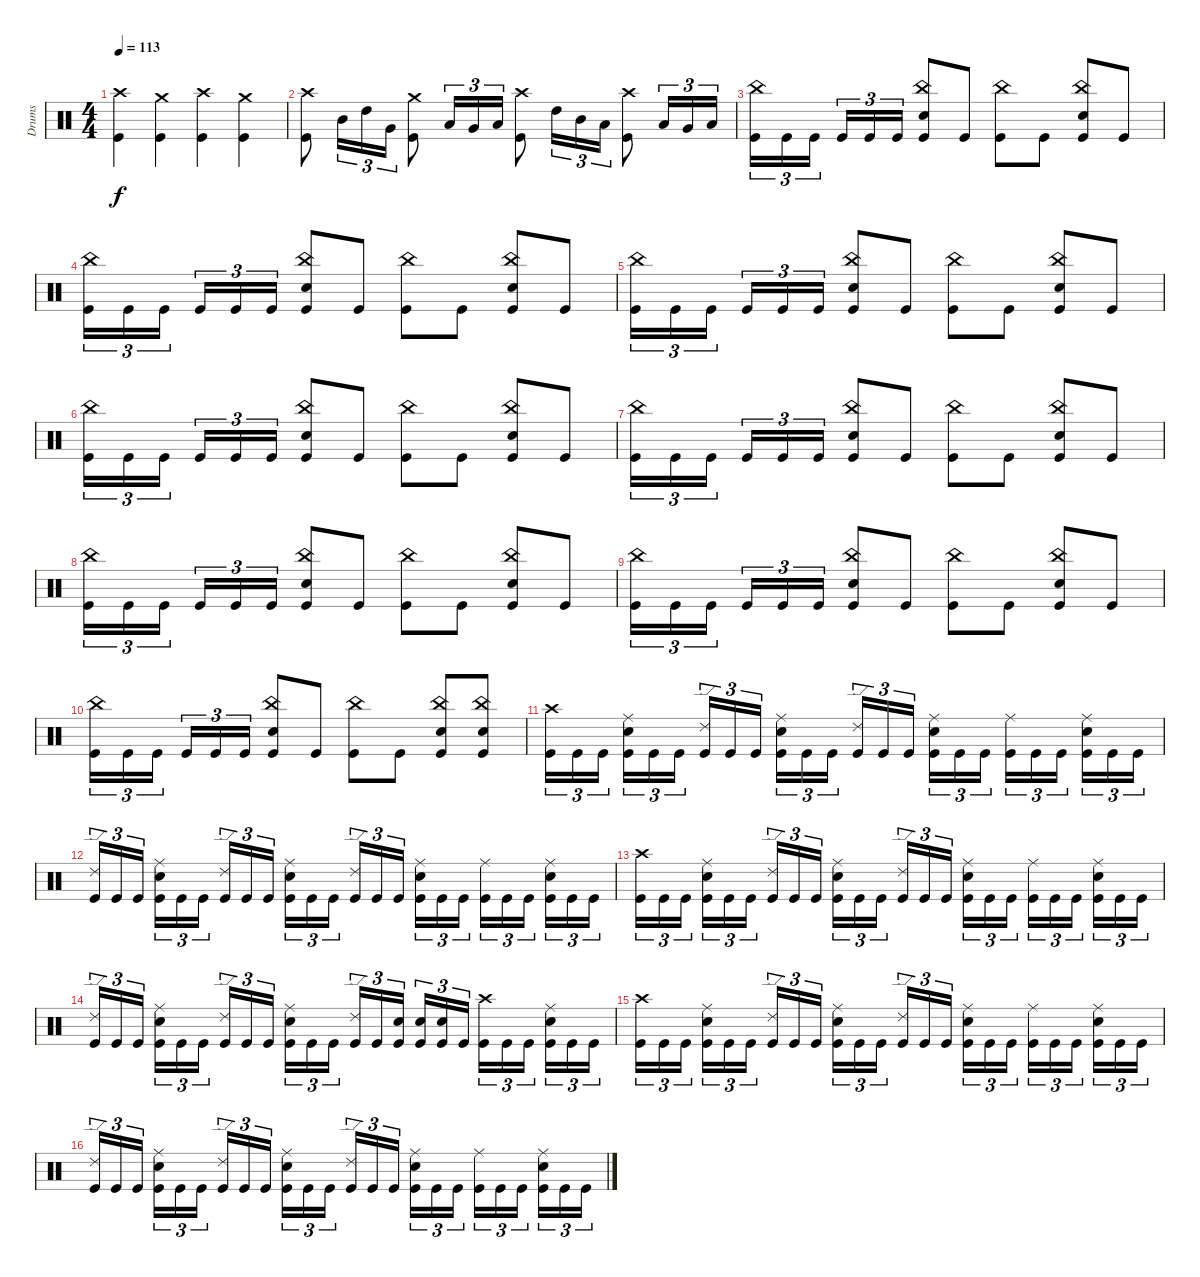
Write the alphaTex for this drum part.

\track ("Drums" "Drums") {instrument percussion}
\staff {score}
\articulation defaults
\ts (4 4)
\tempo 113
\clef neutral
\ks c
("Crash high (hit)" "Kick (hit)").4{dy f} ("Crash medium (hit)" "Kick (hit)").4 ("Crash high (hit)" "Kick (hit)").4 ("Crash medium (hit)" "Kick (hit)").4 |
("Crash high (hit)" "Kick (hit)").8 "Mid Tom (hit)".16{tu (3 2)} "High Tom (hit)".16{tu (3 2)} "Very Low Tom (hit)".16{tu (3 2)} ("Crash medium (hit)" "Kick (hit)").8 "Low Tom (hit)".16{tu (3 2)} "Very Low Tom (hit)".16{tu (3 2)} "Low Floor Tom (hit)".16{tu (3 2)} ("Crash high (hit)" "Kick (hit)").8 "High Tom (hit)".16{tu (3 2)} "Mid Tom (hit)".16{tu (3 2)} "Low Tom (hit)".16{tu (3 2)} ("Crash high (hit)" "Kick (hit)").8 "Low Tom (hit)".16{tu (3 2)} "Very Low Tom (hit)".16{tu (3 2)} "Low Floor Tom (hit)".16{tu (3 2)} |
("China (hit)" "Kick (hit)").16{tu (3 2)} "Kick (hit)".16{tu (3 2)} "Kick (hit)".16{tu (3 2) beam splitsecondary} "Kick (hit)".16{tu (3 2)} "Kick (hit)".16{tu (3 2)} "Kick (hit)".16{tu (3 2)} ("China (hit)" "Electric Snare (hit)" "Kick (hit)").8 "Kick (hit)".8 ("China (hit)" "Kick (hit)").8 "Kick (hit)".8 ("China (hit)" "Electric Snare (hit)" "Kick (hit)").8 "Kick (hit)".8 |
("China (hit)" "Kick (hit)").16{tu (3 2)} "Kick (hit)".16{tu (3 2)} "Kick (hit)".16{tu (3 2) beam splitsecondary} "Kick (hit)".16{tu (3 2)} "Kick (hit)".16{tu (3 2)} "Kick (hit)".16{tu (3 2)} ("China (hit)" "Electric Snare (hit)" "Kick (hit)").8 "Kick (hit)".8 ("China (hit)" "Kick (hit)").8 "Kick (hit)".8 ("China (hit)" "Electric Snare (hit)" "Kick (hit)").8 "Kick (hit)".8 |
("China (hit)" "Kick (hit)").16{tu (3 2)} "Kick (hit)".16{tu (3 2)} "Kick (hit)".16{tu (3 2) beam splitsecondary} "Kick (hit)".16{tu (3 2)} "Kick (hit)".16{tu (3 2)} "Kick (hit)".16{tu (3 2)} ("China (hit)" "Electric Snare (hit)" "Kick (hit)").8 "Kick (hit)".8 ("China (hit)" "Kick (hit)").8 "Kick (hit)".8 ("China (hit)" "Electric Snare (hit)" "Kick (hit)").8 "Kick (hit)".8 |
("China (hit)" "Kick (hit)").16{tu (3 2)} "Kick (hit)".16{tu (3 2)} "Kick (hit)".16{tu (3 2) beam splitsecondary} "Kick (hit)".16{tu (3 2)} "Kick (hit)".16{tu (3 2)} "Kick (hit)".16{tu (3 2)} ("China (hit)" "Electric Snare (hit)" "Kick (hit)").8 "Kick (hit)".8 ("China (hit)" "Kick (hit)").8 "Kick (hit)".8 ("China (hit)" "Electric Snare (hit)" "Kick (hit)").8 "Kick (hit)".8 |
("China (hit)" "Kick (hit)").16{tu (3 2)} "Kick (hit)".16{tu (3 2)} "Kick (hit)".16{tu (3 2) beam splitsecondary} "Kick (hit)".16{tu (3 2)} "Kick (hit)".16{tu (3 2)} "Kick (hit)".16{tu (3 2)} ("China (hit)" "Electric Snare (hit)" "Kick (hit)").8 "Kick (hit)".8 ("China (hit)" "Kick (hit)").8 "Kick (hit)".8 ("China (hit)" "Electric Snare (hit)" "Kick (hit)").8 "Kick (hit)".8 |
("China (hit)" "Kick (hit)").16{tu (3 2)} "Kick (hit)".16{tu (3 2)} "Kick (hit)".16{tu (3 2) beam splitsecondary} "Kick (hit)".16{tu (3 2)} "Kick (hit)".16{tu (3 2)} "Kick (hit)".16{tu (3 2)} ("China (hit)" "Electric Snare (hit)" "Kick (hit)").8 "Kick (hit)".8 ("China (hit)" "Kick (hit)").8 "Kick (hit)".8 ("China (hit)" "Electric Snare (hit)" "Kick (hit)").8 "Kick (hit)".8 |
("China (hit)" "Kick (hit)").16{tu (3 2)} "Kick (hit)".16{tu (3 2)} "Kick (hit)".16{tu (3 2) beam splitsecondary} "Kick (hit)".16{tu (3 2)} "Kick (hit)".16{tu (3 2)} "Kick (hit)".16{tu (3 2)} ("China (hit)" "Electric Snare (hit)" "Kick (hit)").8 "Kick (hit)".8 ("China (hit)" "Kick (hit)").8 "Kick (hit)".8 ("China (hit)" "Electric Snare (hit)" "Kick (hit)").8 "Kick (hit)".8 |
("China (hit)" "Kick (hit)").16{tu (3 2)} "Kick (hit)".16{tu (3 2)} "Kick (hit)".16{tu (3 2) beam splitsecondary} "Kick (hit)".16{tu (3 2)} "Kick (hit)".16{tu (3 2)} "Kick (hit)".16{tu (3 2)} ("China (hit)" "Electric Snare (hit)" "Kick (hit)").8 "Kick (hit)".8 ("China (hit)" "Kick (hit)").8 "Kick (hit)".8 ("China (hit)" "Electric Snare (hit)" "Kick (hit)").8 ("China (hit)" "Electric Snare (hit)" "Kick (hit)").8 |
("Crash high (hit)" "Kick (hit)").16{tu (3 2)} "Kick (hit)".16{tu (3 2)} "Kick (hit)".16{tu (3 2) beam splitsecondary} ("Ride (middle)" "Electric Snare (hit)" "Kick (hit)").16{tu (3 2)} "Kick (hit)".16{tu (3 2)} "Kick (hit)".16{tu (3 2)} ("Ride (edge) 2" "Kick (hit)").16{tu (3 2)} "Kick (hit)".16{tu (3 2)} "Kick (hit)".16{tu (3 2) beam splitsecondary} ("Ride (middle)" "Electric Snare (hit)" "Kick (hit)").16{tu (3 2)} "Kick (hit)".16{tu (3 2)} "Kick (hit)".16{tu (3 2)} ("Ride (edge) 2" "Kick (hit)").16{tu (3 2)} "Kick (hit)".16{tu (3 2)} "Kick (hit)".16{tu (3 2) beam splitsecondary} ("Ride (middle)" "Electric Snare (hit)" "Kick (hit)").16{tu (3 2)} "Kick (hit)".16{tu (3 2)} "Kick (hit)".16{tu (3 2)} ("Ride (middle)" "Kick (hit)").16{tu (3 2)} "Kick (hit)".16{tu (3 2)} "Kick (hit)".16{tu (3 2) beam splitsecondary} ("Ride (middle)" "Electric Snare (hit)" "Kick (hit)").16{tu (3 2)} "Kick (hit)".16{tu (3 2)} "Kick (hit)".16{tu (3 2)} |
("Ride (edge) 2" "Kick (hit)").16{tu (3 2)} "Kick (hit)".16{tu (3 2)} "Kick (hit)".16{tu (3 2) beam splitsecondary} ("Ride (middle)" "Electric Snare (hit)" "Kick (hit)").16{tu (3 2)} "Kick (hit)".16{tu (3 2)} "Kick (hit)".16{tu (3 2)} ("Ride (edge) 2" "Kick (hit)").16{tu (3 2)} "Kick (hit)".16{tu (3 2)} "Kick (hit)".16{tu (3 2) beam splitsecondary} ("Ride (middle)" "Electric Snare (hit)" "Kick (hit)").16{tu (3 2)} "Kick (hit)".16{tu (3 2)} "Kick (hit)".16{tu (3 2)} ("Ride (edge) 2" "Kick (hit)").16{tu (3 2)} "Kick (hit)".16{tu (3 2)} "Kick (hit)".16{tu (3 2) beam splitsecondary} ("Ride (middle)" "Electric Snare (hit)" "Kick (hit)").16{tu (3 2)} "Kick (hit)".16{tu (3 2)} "Kick (hit)".16{tu (3 2)} ("Ride (middle)" "Kick (hit)").16{tu (3 2)} "Kick (hit)".16{tu (3 2)} "Kick (hit)".16{tu (3 2) beam splitsecondary} ("Ride (middle)" "Electric Snare (hit)" "Kick (hit)").16{tu (3 2)} "Kick (hit)".16{tu (3 2)} "Kick (hit)".16{tu (3 2)} |
("Crash high (hit)" "Kick (hit)").16{tu (3 2)} "Kick (hit)".16{tu (3 2)} "Kick (hit)".16{tu (3 2) beam splitsecondary} ("Ride (middle)" "Electric Snare (hit)" "Kick (hit)").16{tu (3 2)} "Kick (hit)".16{tu (3 2)} "Kick (hit)".16{tu (3 2)} ("Ride (edge) 2" "Kick (hit)").16{tu (3 2)} "Kick (hit)".16{tu (3 2)} "Kick (hit)".16{tu (3 2) beam splitsecondary} ("Ride (middle)" "Electric Snare (hit)" "Kick (hit)").16{tu (3 2)} "Kick (hit)".16{tu (3 2)} "Kick (hit)".16{tu (3 2)} ("Ride (edge) 2" "Kick (hit)").16{tu (3 2)} "Kick (hit)".16{tu (3 2)} "Kick (hit)".16{tu (3 2) beam splitsecondary} ("Ride (middle)" "Electric Snare (hit)" "Kick (hit)").16{tu (3 2)} "Kick (hit)".16{tu (3 2)} "Kick (hit)".16{tu (3 2)} ("Ride (middle)" "Kick (hit)").16{tu (3 2)} "Kick (hit)".16{tu (3 2)} "Kick (hit)".16{tu (3 2) beam splitsecondary} ("Ride (middle)" "Electric Snare (hit)" "Kick (hit)").16{tu (3 2)} "Kick (hit)".16{tu (3 2)} "Kick (hit)".16{tu (3 2)} |
("Ride (edge) 2" "Kick (hit)").16{tu (3 2)} "Kick (hit)".16{tu (3 2)} "Kick (hit)".16{tu (3 2) beam splitsecondary} ("Ride (middle)" "Electric Snare (hit)" "Kick (hit)").16{tu (3 2)} "Kick (hit)".16{tu (3 2)} "Kick (hit)".16{tu (3 2)} ("Ride (edge) 2" "Kick (hit)").16{tu (3 2)} "Kick (hit)".16{tu (3 2)} "Kick (hit)".16{tu (3 2) beam splitsecondary} ("Ride (middle)" "Electric Snare (hit)" "Kick (hit)").16{tu (3 2)} "Kick (hit)".16{tu (3 2)} "Kick (hit)".16{tu (3 2)} ("Ride (edge) 2" "Kick (hit)").16{tu (3 2)} "Kick (hit)".16{tu (3 2)} ("Electric Snare (hit)" "Kick (hit)").16{tu (3 2) beam splitsecondary} ("Electric Snare (hit)" "Kick (hit)").16{tu (3 2)} ("Electric Snare (hit)" "Kick (hit)").16{tu (3 2)} "Kick (hit)".16{tu (3 2)} ("Crash high (hit)" "Kick (hit)").16{tu (3 2)} "Kick (hit)".16{tu (3 2)} "Kick (hit)".16{tu (3 2) beam splitsecondary} ("Ride (middle)" "Electric Snare (hit)" "Kick (hit)").16{tu (3 2)} "Kick (hit)".16{tu (3 2)} "Kick (hit)".16{tu (3 2)} |
("Crash high (hit)" "Kick (hit)").16{tu (3 2)} "Kick (hit)".16{tu (3 2)} "Kick (hit)".16{tu (3 2) beam splitsecondary} ("Ride (middle)" "Electric Snare (hit)" "Kick (hit)").16{tu (3 2)} "Kick (hit)".16{tu (3 2)} "Kick (hit)".16{tu (3 2)} ("Ride (edge) 2" "Kick (hit)").16{tu (3 2)} "Kick (hit)".16{tu (3 2)} "Kick (hit)".16{tu (3 2) beam splitsecondary} ("Ride (middle)" "Electric Snare (hit)" "Kick (hit)").16{tu (3 2)} "Kick (hit)".16{tu (3 2)} "Kick (hit)".16{tu (3 2)} ("Ride (edge) 2" "Kick (hit)").16{tu (3 2)} "Kick (hit)".16{tu (3 2)} "Kick (hit)".16{tu (3 2) beam splitsecondary} ("Ride (middle)" "Electric Snare (hit)" "Kick (hit)").16{tu (3 2)} "Kick (hit)".16{tu (3 2)} "Kick (hit)".16{tu (3 2)} ("Ride (middle)" "Kick (hit)").16{tu (3 2)} "Kick (hit)".16{tu (3 2)} "Kick (hit)".16{tu (3 2) beam splitsecondary} ("Ride (middle)" "Electric Snare (hit)" "Kick (hit)").16{tu (3 2)} "Kick (hit)".16{tu (3 2)} "Kick (hit)".16{tu (3 2)} |
("Ride (edge) 2" "Kick (hit)").16{tu (3 2)} "Kick (hit)".16{tu (3 2)} "Kick (hit)".16{tu (3 2) beam splitsecondary} ("Ride (middle)" "Electric Snare (hit)" "Kick (hit)").16{tu (3 2)} "Kick (hit)".16{tu (3 2)} "Kick (hit)".16{tu (3 2)} ("Ride (edge) 2" "Kick (hit)").16{tu (3 2)} "Kick (hit)".16{tu (3 2)} "Kick (hit)".16{tu (3 2) beam splitsecondary} ("Ride (middle)" "Electric Snare (hit)" "Kick (hit)").16{tu (3 2)} "Kick (hit)".16{tu (3 2)} "Kick (hit)".16{tu (3 2)} ("Ride (edge) 2" "Kick (hit)").16{tu (3 2)} "Kick (hit)".16{tu (3 2)} "Kick (hit)".16{tu (3 2) beam splitsecondary} ("Ride (middle)" "Electric Snare (hit)" "Kick (hit)").16{tu (3 2)} "Kick (hit)".16{tu (3 2)} "Kick (hit)".16{tu (3 2)} ("Ride (middle)" "Kick (hit)").16{tu (3 2)} "Kick (hit)".16{tu (3 2)} "Kick (hit)".16{tu (3 2) beam splitsecondary} ("Ride (middle)" "Electric Snare (hit)" "Kick (hit)").16{tu (3 2)} "Kick (hit)".16{tu (3 2)} "Kick (hit)".16{tu (3 2)}
